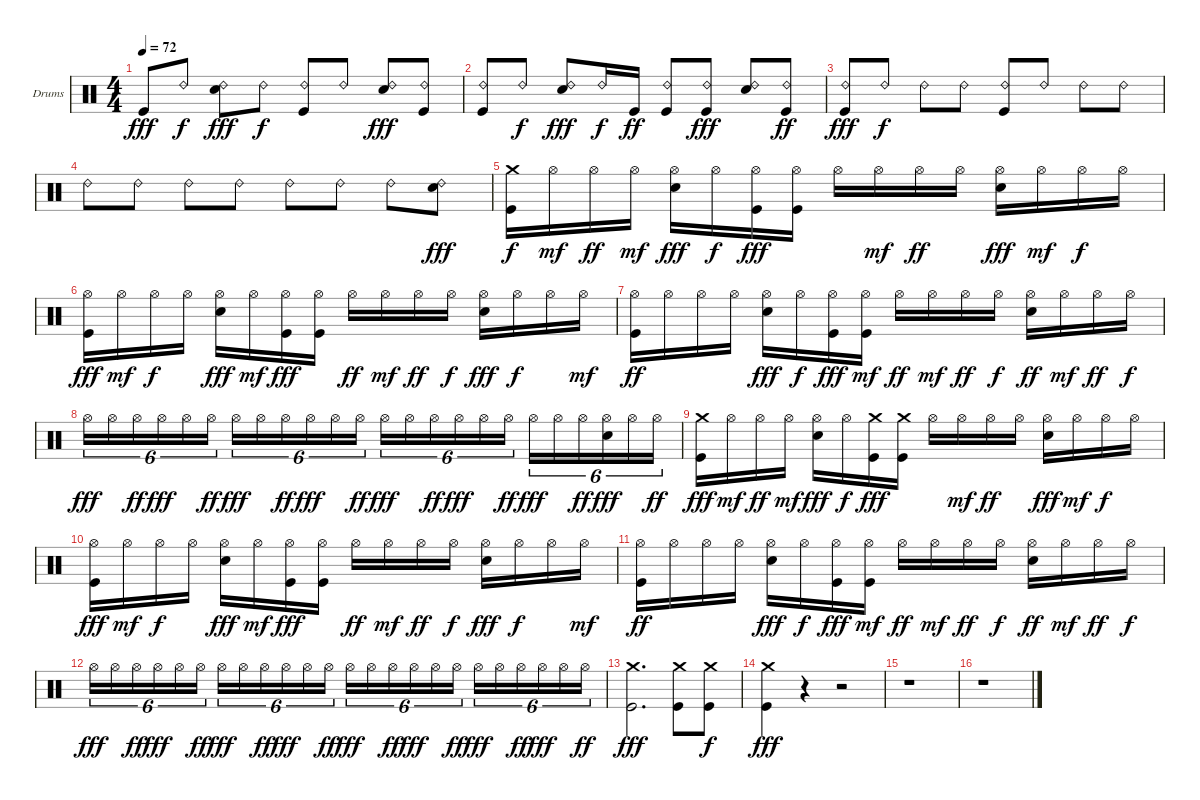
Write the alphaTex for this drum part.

\bracketExtendMode groupsimilarinstruments
\firstSystemTrackNameOrientation horizontal
\otherSystemsTrackNameOrientation horizontal
\track ("Drumkit" "Drums") {instrument percussion}
\staff {score}
\articulation defaults
\ts (4 4)
\tempo 72
\clef neutral
\ks c "Kick (hit)".8{dy fff} "Ride (bell) 2".8{dy f}
("Snare (hit) 2" "Ride (bell) 2").8{dy fff} "Ride (bell) 2".8{dy f} ("Ride (bell) 2" "Kick (hit)").8 "Ride (bell) 2".8 ("Snare (hit) 2" "Ride (bell) 2").8{dy fff} ("Kick (hit)" "Ride (bell) 2").8 |
("Kick (hit)" "Ride (bell) 2").8 "Ride (bell) 2".8{dy f} ("Snare (hit) 2" "Ride (bell) 2").8{dy fff} "Ride (bell) 2".16{dy f} "Kick (hit)".16{dy ff} ("Kick (hit)" "Ride (bell) 2").8 ("Kick (hit)" "Ride (bell) 2").8{dy fff} ("Snare (hit) 2" "Ride (bell) 2").8 ("Kick (hit)" "Ride (bell) 2").8{dy ff} |
("Kick (hit)" "Ride (bell) 2").8{dy fff} "Ride (bell) 2".8{dy f} "Ride (bell) 2".8 "Ride (bell) 2".8 ("Ride (bell) 2" "Kick (hit)").8 "Ride (bell) 2".8 "Ride (bell) 2".8 "Ride (bell) 2".8 |
"Ride (bell) 2".8 "Ride (bell) 2".8 "Ride (bell) 2".8 "Ride (bell) 2".8 "Ride (bell) 2".8 "Ride (bell) 2".8 "Ride (bell) 2".8 ("Snare (hit) 2" "Ride (bell) 2").8{dy fff} |
("Crash medium (hit)" "Kick (hit)").16{dy f} "Hi-Hat (open)".16{dy mf} "Hi-Hat (open)".16{dy ff} "Hi-Hat (open)".16{dy mf} ("Snare (hit) 2" "Hi-Hat (open)").16{dy fff} "Hi-Hat (open)".16{dy f} ("Kick (hit)" "Hi-Hat (open)").16{dy fff} ("Kick (hit)" "Hi-Hat (open)").16 "Hi-Hat (open)".16 "Hi-Hat (open)".16{dy mf} "Hi-Hat (open)".16{dy ff} "Hi-Hat (open)".16 ("Snare (hit) 2" "Hi-Hat (open)").16{dy fff} "Hi-Hat (open)".16{dy mf} "Hi-Hat (open)".16{dy f} "Hi-Hat (open)".16 |
("Kick (hit)" "Hi-Hat (open)").16{dy fff} "Hi-Hat (open)".16{dy mf} "Hi-Hat (open)".16{dy f} "Hi-Hat (open)".16 ("Snare (hit) 2" "Hi-Hat (open)").16{dy fff} "Hi-Hat (open)".16{dy mf} ("Kick (hit)" "Hi-Hat (open)").16{dy fff} ("Kick (hit)" "Hi-Hat (open)").16 "Hi-Hat (open)".16{dy ff} "Hi-Hat (open)".16{dy mf} "Hi-Hat (open)".16{dy ff} "Hi-Hat (open)".16{dy f} ("Snare (hit) 2" "Hi-Hat (open)").16{dy fff} "Hi-Hat (open)".16{dy f} "Hi-Hat (open)".16 "Hi-Hat (open)".16{dy mf} |
("Hi-Hat (open)" "Kick (hit)").16{dy ff} "Hi-Hat (open)".16 "Hi-Hat (open)".16 "Hi-Hat (open)".16 ("Snare (hit) 2" "Hi-Hat (open)").16{dy fff} "Hi-Hat (open)".16{dy f} ("Kick (hit)" "Hi-Hat (open)").16{dy fff} ("Hi-Hat (open)" "Kick (hit)").16{dy mf} "Hi-Hat (open)".16{dy ff} "Hi-Hat (open)".16{dy mf} "Hi-Hat (open)".16{dy ff} "Hi-Hat (open)".16{dy f} ("Hi-Hat (open)" "Snare (hit) 2").16{dy ff} "Hi-Hat (open)".16{dy mf} "Hi-Hat (open)".16{dy ff} "Hi-Hat (open)".16{dy f} |
"Hi-Hat (open)".16{tu (6 4) dy fff} "Hi-Hat (open)".16{tu (6 4)} "Hi-Hat (open)".16{tu (6 4) dy ff} "Hi-Hat (open)".16{tu (6 4) dy fff} "Hi-Hat (open)".16{tu (6 4)} "Hi-Hat (open)".16{tu (6 4) dy ff} "Hi-Hat (open)".16{tu (6 4) dy fff} "Hi-Hat (open)".16{tu (6 4)} "Hi-Hat (open)".16{tu (6 4) dy ff} "Hi-Hat (open)".16{tu (6 4) dy fff} "Hi-Hat (open)".16{tu (6 4)} "Hi-Hat (open)".16{tu (6 4) dy ff} "Hi-Hat (open)".16{tu (6 4) dy fff} "Hi-Hat (open)".16{tu (6 4)} "Hi-Hat (open)".16{tu (6 4) dy ff} "Hi-Hat (open)".16{tu (6 4) dy fff} "Hi-Hat (open)".16{tu (6 4)} "Hi-Hat (open)".16{tu (6 4) dy ff} "Hi-Hat (open)".16{tu (6 4) dy fff} "Hi-Hat (open)".16{tu (6 4)} "Hi-Hat (open)".16{tu (6 4) dy ff} ("Hi-Hat (open)" "Snare (hit) 2").16{tu (6 4) dy fff} "Hi-Hat (open)".16{tu (6 4)} "Hi-Hat (open)".16{tu (6 4) dy ff} |
("Kick (hit)" "Crash medium (hit)").16{dy fff} "Hi-Hat (open)".16{dy mf} "Hi-Hat (open)".16{dy ff} "Hi-Hat (open)".16{dy mf} ("Snare (hit) 2" "Hi-Hat (open)").16{dy fff} "Hi-Hat (open)".16{dy f} ("Kick (hit)" "Crash medium (hit)").16{dy fff} ("Kick (hit)" "Crash medium (hit)").16 "Hi-Hat (open)".16 "Hi-Hat (open)".16{dy mf} "Hi-Hat (open)".16{dy ff} "Hi-Hat (open)".16 ("Snare (hit) 2" "Hi-Hat (open)").16{dy fff} "Hi-Hat (open)".16{dy mf} "Hi-Hat (open)".16{dy f} "Hi-Hat (open)".16 |
("Kick (hit)" "Hi-Hat (open)").16{dy fff} "Hi-Hat (open)".16{dy mf} "Hi-Hat (open)".16{dy f} "Hi-Hat (open)".16 ("Snare (hit) 2" "Hi-Hat (open)").16{dy fff} "Hi-Hat (open)".16{dy mf} ("Kick (hit)" "Hi-Hat (open)").16{dy fff} ("Kick (hit)" "Hi-Hat (open)").16 "Hi-Hat (open)".16{dy ff} "Hi-Hat (open)".16{dy mf} "Hi-Hat (open)".16{dy ff} "Hi-Hat (open)".16{dy f} ("Snare (hit) 2" "Hi-Hat (open)").16{dy fff} "Hi-Hat (open)".16{dy f} "Hi-Hat (open)".16 "Hi-Hat (open)".16{dy mf} |
("Hi-Hat (open)" "Kick (hit)").16{dy ff} "Hi-Hat (open)".16 "Hi-Hat (open)".16 "Hi-Hat (open)".16 ("Snare (hit) 2" "Hi-Hat (open)").16{dy fff} "Hi-Hat (open)".16{dy f} ("Kick (hit)" "Hi-Hat (open)").16{dy fff} ("Hi-Hat (open)" "Kick (hit)").16{dy mf} "Hi-Hat (open)".16{dy ff} "Hi-Hat (open)".16{dy mf} "Hi-Hat (open)".16{dy ff} "Hi-Hat (open)".16{dy f} ("Hi-Hat (open)" "Snare (hit) 2").16{dy ff} "Hi-Hat (open)".16{dy mf} "Hi-Hat (open)".16{dy ff} "Hi-Hat (open)".16{dy f} |
"Hi-Hat (open)".16{tu (6 4) dy fff} "Hi-Hat (open)".16{tu (6 4)} "Hi-Hat (open)".16{tu (6 4) dy ff} "Hi-Hat (open)".16{tu (6 4) dy fff} "Hi-Hat (open)".16{tu (6 4)} "Hi-Hat (open)".16{tu (6 4) dy ff} "Hi-Hat (open)".16{tu (6 4) dy fff} "Hi-Hat (open)".16{tu (6 4)} "Hi-Hat (open)".16{tu (6 4) dy ff} "Hi-Hat (open)".16{tu (6 4) dy fff} "Hi-Hat (open)".16{tu (6 4)} "Hi-Hat (open)".16{tu (6 4) dy ff} "Hi-Hat (open)".16{tu (6 4) dy fff} "Hi-Hat (open)".16{tu (6 4)} "Hi-Hat (open)".16{tu (6 4) dy ff} "Hi-Hat (open)".16{tu (6 4) dy fff} "Hi-Hat (open)".16{tu (6 4)} "Hi-Hat (open)".16{tu (6 4) dy ff} "Hi-Hat (open)".16{tu (6 4) dy fff} "Hi-Hat (open)".16{tu (6 4)} "Hi-Hat (open)".16{tu (6 4) dy ff} "Hi-Hat (open)".16{tu (6 4) dy fff} "Hi-Hat (open)".16{tu (6 4)} "Hi-Hat (open)".16{tu (6 4) dy ff} |
("Crash medium (hit)" "Kick (hit)").2{d dy fff} ("Kick (hit)" "Crash medium (hit)").8 ("Crash medium (hit)" "Kick (hit)").8{dy f} |
("Kick (hit)" "Crash medium (hit)").4{dy fff} r.4 r.2 |
r.1 |
r.1
